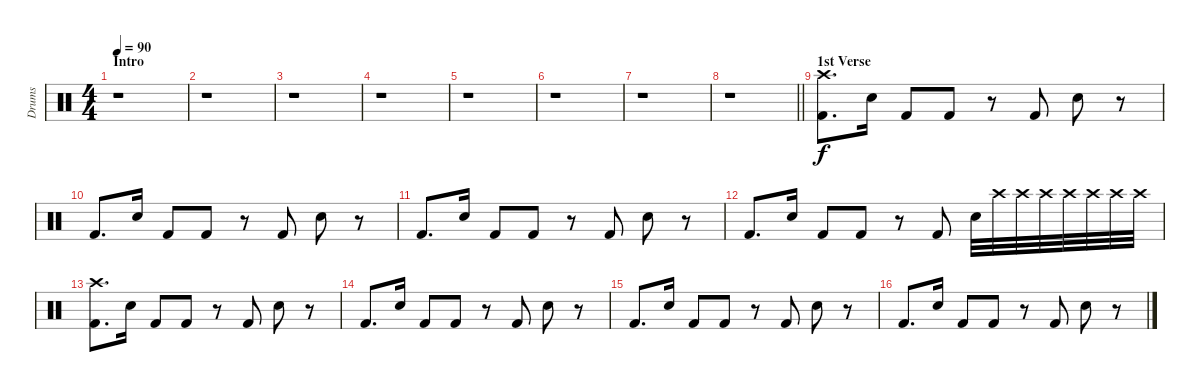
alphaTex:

\track ("Drums" "Drums") {instrument percussion}
\staff {score}
\articulation defaults
\ts (4 4)
\section ("" "Intro")
\tempo 90
\clef neutral
\ks c
r.1{dy f} |
r.1 |
r.1 |
r.1 |
r.1 |
r.1 |
r.1 |
\barLineRight lightlight
r.1 |
\section ("" "1st Verse")
("Kick (hit) 2" "Crash high (hit)").8{d} "Hand Clap (hit)".16 "Kick (hit) 2".8 "Kick (hit) 2".8 r.8 "Kick (hit) 2".8 "Hand Clap (hit)".8 r.8 |
"Kick (hit) 2".8{d} "Hand Clap (hit)".16 "Kick (hit) 2".8 "Kick (hit) 2".8 r.8 "Kick (hit) 2".8 "Hand Clap (hit)".8 r.8 |
"Kick (hit) 2".8{d} "Hand Clap (hit)".16 "Kick (hit) 2".8 "Kick (hit) 2".8 r.8 "Kick (hit) 2".8 "Hand Clap (hit)".8 r.8 |
"Kick (hit) 2".8{d} "Hand Clap (hit)".16 "Kick (hit) 2".8 "Kick (hit) 2".8 r.8 "Kick (hit) 2".8 "Hand Clap (hit)".32 "Crash high (hit)".32{volume 6} "Crash high (hit)".32{volume 7} "Crash high (hit)".32{volume 8} "Crash high (hit)".32{volume 9} "Crash high (hit)".32{volume 10} "Crash high (hit)".32{volume 11} "Crash high (hit)".32{volume 12} |
("Kick (hit) 2" "Crash high (hit)").8{d} "Hand Clap (hit)".16 "Kick (hit) 2".8 "Kick (hit) 2".8 r.8 "Kick (hit) 2".8 "Hand Clap (hit)".8 r.8 |
"Kick (hit) 2".8{d} "Hand Clap (hit)".16 "Kick (hit) 2".8 "Kick (hit) 2".8 r.8 "Kick (hit) 2".8 "Hand Clap (hit)".8 r.8 |
"Kick (hit) 2".8{d} "Hand Clap (hit)".16 "Kick (hit) 2".8 "Kick (hit) 2".8 r.8 "Kick (hit) 2".8 "Hand Clap (hit)".8 r.8 |
"Kick (hit) 2".8{d} "Hand Clap (hit)".16 "Kick (hit) 2".8 "Kick (hit) 2".8 r.8 "Kick (hit) 2".8 "Hand Clap (hit)".8 r.8
